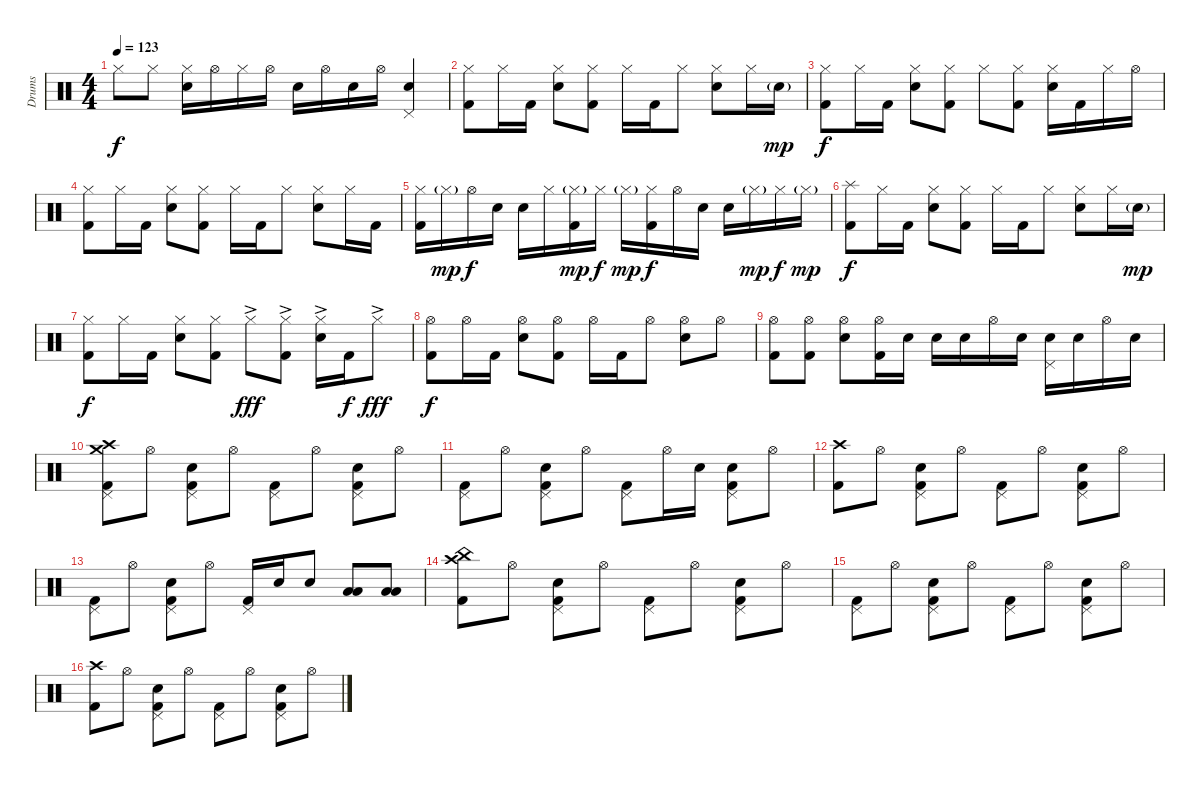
\track ("Drums" "Drums") {instrument percussion}
\staff {score}
\articulation defaults
\ts (4 4)
\tempo 123
\clef neutral
\ks c "Hi-Hat (closed)".8{dy f} "Hi-Hat (closed)".8
("Hi-Hat (closed)" "Snare (hit) 2").16 "Hi-Hat (open)".16 "Hi-Hat (closed)".16 "Hi-Hat (open)".16 "Snare (hit) 2".16 "Hi-Hat (open)".16 "Snare (hit) 2".16 "Hi-Hat (open)".16 ("Pedal Hi-Hat (hit)" "Snare (hit) 2").4 |
("Hi-Hat (closed)" "Kick (hit) 2").8 "Hi-Hat (closed)".16 "Kick (hit) 2".16 ("Hi-Hat (closed)" "Snare (hit) 2").8 ("Hi-Hat (closed)" "Kick (hit) 2").8 "Hi-Hat (closed)".16 "Kick (hit) 2".16 "Hi-Hat (closed)".8 ("Hi-Hat (closed)" "Snare (hit) 2").8 "Hi-Hat (closed)".16 "Snare (hit) 2"{g}.16{dy mp} |
("Hi-Hat (closed)" "Kick (hit) 2").8{dy f} "Hi-Hat (closed)".16 "Kick (hit) 2".16 ("Hi-Hat (closed)" "Snare (hit) 2").8 ("Hi-Hat (closed)" "Kick (hit) 2").8 "Hi-Hat (closed)".8 ("Hi-Hat (closed)" "Kick (hit) 2").8 ("Hi-Hat (closed)" "Snare (hit) 2").16 "Kick (hit) 2".16 "Hi-Hat (closed)".16 "Hi-Hat (open)".16 |
("Hi-Hat (closed)" "Kick (hit) 2").8 "Hi-Hat (closed)".16 "Kick (hit) 2".16 ("Hi-Hat (closed)" "Snare (hit) 2").8 ("Hi-Hat (closed)" "Kick (hit) 2").8 "Hi-Hat (closed)".16 "Kick (hit) 2".16 "Hi-Hat (closed)".8 ("Hi-Hat (closed)" "Snare (hit) 2").8 "Hi-Hat (closed)".16 "Kick (hit) 2".16 |
("Hi-Hat (closed)" "Kick (hit) 2").16 "Hi-Hat (closed)"{g}.16{dy mp} "Hi-Hat (open)".16{dy f} "Snare (hit) 2".16 "Snare (hit) 2".16 "Hi-Hat (closed)".16 ("Hi-Hat (closed)"{g} "Kick (hit) 2").16{dy mp} "Hi-Hat (closed)".16{dy f} "Hi-Hat (closed)"{g}.16{dy mp} ("Hi-Hat (closed)" "Kick (hit) 2").16{dy f} "Hi-Hat (open)".16 "Snare (hit) 2".16 "Snare (hit) 2".16 "Hi-Hat (closed)"{g}.16{dy mp} "Hi-Hat (closed)".16{dy f} "Hi-Hat (closed)"{g}.16{dy mp} |
("Splash (hit)" "Kick (hit) 2").8{dy f} "Hi-Hat (closed)".16 "Kick (hit) 2".16 ("Hi-Hat (closed)" "Snare (hit) 2").8 ("Hi-Hat (closed)" "Kick (hit) 2").8 "Hi-Hat (closed)".16 "Kick (hit) 2".16 "Hi-Hat (closed)".8 ("Hi-Hat (closed)" "Snare (hit) 2").8 "Hi-Hat (closed)".16 "Snare (hit) 2"{g}.16{dy mp} |
("Hi-Hat (closed)" "Kick (hit) 2").8{dy f} "Hi-Hat (closed)".16 "Kick (hit) 2".16 ("Hi-Hat (closed)" "Snare (hit) 2").8 ("Hi-Hat (closed)" "Kick (hit) 2").8 "Hi-Hat (closed)"{ac}.8{dy fff} ("Hi-Hat (closed)"{ac} "Kick (hit) 2").8 ("Hi-Hat (closed)"{ac} "Snare (hit) 2").16 "Kick (hit) 2".16{dy f} "Hi-Hat (closed)"{ac}.8{dy fff} |
("Hi-Hat (open)" "Kick (hit) 2").8{dy f} "Hi-Hat (open)".16 "Kick (hit) 2".16 ("Hi-Hat (open)" "Snare (hit) 2").8 ("Hi-Hat (open)" "Kick (hit) 2").8 "Hi-Hat (open)".16 "Kick (hit) 2".16 "Hi-Hat (open)".8 ("Hi-Hat (open)" "Snare (hit) 2").8 "Hi-Hat (open)".8 |
("Hi-Hat (open)" "Kick (hit) 2").8 ("Hi-Hat (open)" "Kick (hit) 2").8 ("Hi-Hat (open)" "Snare (hit) 2").8 ("Hi-Hat (open)" "Kick (hit) 2").16 "Snare (hit) 2".16 "Snare (hit) 2".16 "Snare (hit) 2".16 "Hi-Hat (open)".16 "Snare (hit) 2".16 ("Pedal Hi-Hat (hit)" "Snare (hit) 2").16 "Snare (hit) 2".16 "Hi-Hat (open)".16 "Snare (hit) 2".16 |
("Crash high (hit)" "Crash medium (hit)" "Pedal Hi-Hat (hit)" "Kick (hit) 2").8 "Hi-Hat (open)".8 ("Pedal Hi-Hat (hit)" "Snare (hit) 2" "Kick (hit) 2").8 "Hi-Hat (open)".8 ("Pedal Hi-Hat (hit)" "Kick (hit) 2").8 "Hi-Hat (open)".8 ("Pedal Hi-Hat (hit)" "Snare (hit) 2" "Kick (hit) 2").8 "Hi-Hat (open)".8 |
("Pedal Hi-Hat (hit)" "Kick (hit) 2").8 "Hi-Hat (open)".8 ("Pedal Hi-Hat (hit)" "Snare (hit) 2" "Kick (hit) 2").8 "Hi-Hat (open)".8 ("Pedal Hi-Hat (hit)" "Kick (hit) 2").8 "Hi-Hat (open)".16 "Snare (hit) 2".16 ("Pedal Hi-Hat (hit)" "Snare (hit) 2" "Kick (hit) 2").8 "Hi-Hat (open)".8 |
("Crash high (hit)" "Kick (hit) 2").8 "Hi-Hat (open)".8 ("Pedal Hi-Hat (hit)" "Snare (hit) 2" "Kick (hit) 2").8 "Hi-Hat (open)".8 ("Pedal Hi-Hat (hit)" "Kick (hit) 2").8 "Hi-Hat (open)".8 ("Pedal Hi-Hat (hit)" "Snare (hit) 2" "Kick (hit) 2").8 "Hi-Hat (open)".8 |
("Pedal Hi-Hat (hit)" "Kick (hit) 2").8 "Hi-Hat (open)".8 ("Pedal Hi-Hat (hit)" "Snare (hit) 2" "Kick (hit) 2").8 "Hi-Hat (open)".8 ("Pedal Hi-Hat (hit)" "Kick (hit) 2").16 "Snare (hit) 2".16 "Snare (hit) 2".8 ("Low Tom (hit)" "Low Tom (hit)").8 ("Low Floor Tom (hit)" "Low Floor Tom (hit)").8 |
("Crash high (hit)" "China (hit)" "Kick (hit) 2").8 "Hi-Hat (open)".8 ("Pedal Hi-Hat (hit)" "Snare (hit) 2" "Kick (hit) 2").8 "Hi-Hat (open)".8 ("Pedal Hi-Hat (hit)" "Kick (hit) 2").8 "Hi-Hat (open)".8 ("Pedal Hi-Hat (hit)" "Snare (hit) 2" "Kick (hit) 2").8 "Hi-Hat (open)".8 |
("Pedal Hi-Hat (hit)" "Kick (hit) 2").8 "Hi-Hat (open)".8 ("Pedal Hi-Hat (hit)" "Snare (hit) 2" "Kick (hit) 2").8 "Hi-Hat (open)".8 ("Pedal Hi-Hat (hit)" "Kick (hit) 2").8 "Hi-Hat (open)".8 ("Pedal Hi-Hat (hit)" "Snare (hit) 2" "Kick (hit) 2").8 "Hi-Hat (open)".8 |
("Crash high (hit)" "Kick (hit) 2").8 "Hi-Hat (open)".8 ("Pedal Hi-Hat (hit)" "Snare (hit) 2" "Kick (hit) 2").8 "Hi-Hat (open)".8 ("Pedal Hi-Hat (hit)" "Kick (hit) 2").8 "Hi-Hat (open)".8 ("Pedal Hi-Hat (hit)" "Snare (hit) 2" "Kick (hit) 2").8 "Hi-Hat (open)".8
